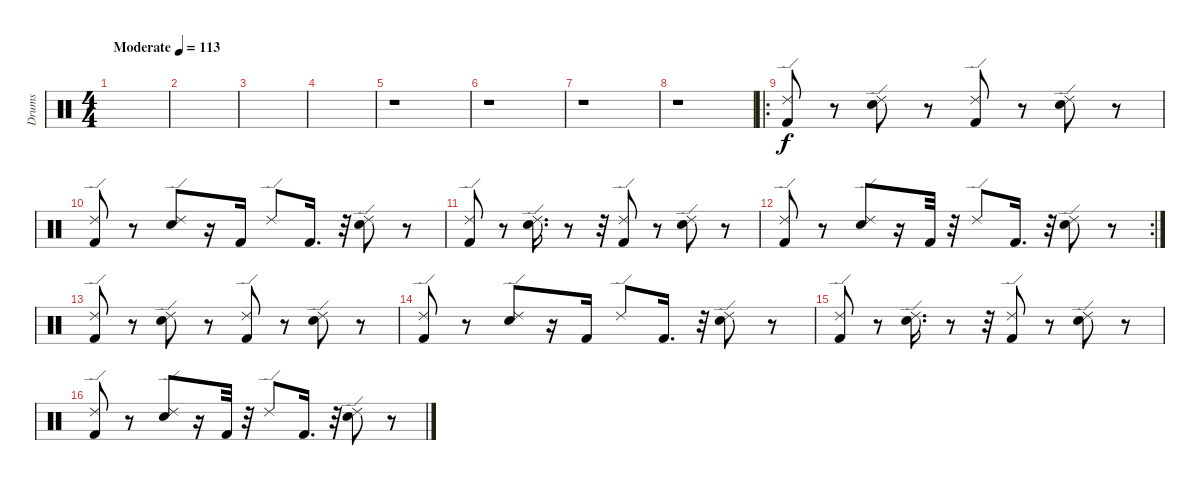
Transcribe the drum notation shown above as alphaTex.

\track ("Drums" "Drums") {instrument percussion}
\staff {score}
\articulation defaults
\ts (4 4)
\tempo (113 "Moderate")
\clef neutral
\ks c
|
|
|
|
r.1 |
r.1 |
r.1 |
r.1 |
\ro
("Kick (hit) 2" "Ride (edge) 2").8 r.8 ("Ride (edge) 2" "Snare (hit) 2").8 r.8 ("Kick (hit) 2" "Ride (edge) 2").8 r.8 ("Snare (hit) 2" "Ride (edge) 2").8 r.8 |
("Kick (hit) 2" "Ride (edge) 2").8 r.8 ("Snare (hit) 2" "Ride (edge) 2").8 r.16 "Kick (hit) 2".16 "Ride (edge) 2".8 "Kick (hit) 2".16{d} r.32 ("Snare (hit) 2" "Ride (edge) 2").8 r.8 |
("Kick (hit) 2" "Ride (edge) 2").8 r.8 ("Snare (hit) 2" "Ride (edge) 2").16{d} r.8 r.32 ("Kick (hit) 2" "Ride (edge) 2").8 r.8 ("Ride (edge) 2" "Snare (hit) 2").8 r.8 |
\rc 2
("Kick (hit) 2" "Ride (edge) 2").8 r.8 ("Snare (hit) 2" "Ride (edge) 2").8 r.16 "Kick (hit) 2".32 r.32 "Ride (edge) 2".8 "Kick (hit) 2".16{d} r.32 ("Snare (hit) 2" "Ride (edge) 2").8 r.8 |
("Kick (hit) 2" "Ride (edge) 2").8 r.8 ("Ride (edge) 2" "Snare (hit) 2").8 r.8 ("Kick (hit) 2" "Ride (edge) 2").8 r.8 ("Snare (hit) 2" "Ride (edge) 2").8 r.8 |
("Kick (hit) 2" "Ride (edge) 2").8 r.8 ("Snare (hit) 2" "Ride (edge) 2").8 r.16 "Kick (hit) 2".16 "Ride (edge) 2".8 "Kick (hit) 2".16{d} r.32 ("Snare (hit) 2" "Ride (edge) 2").8 r.8 |
("Kick (hit) 2" "Ride (edge) 2").8 r.8 ("Snare (hit) 2" "Ride (edge) 2").16{d} r.8 r.32 ("Kick (hit) 2" "Ride (edge) 2").8 r.8 ("Ride (edge) 2" "Snare (hit) 2").8 r.8 |
("Kick (hit) 2" "Ride (edge) 2").8 r.8 ("Snare (hit) 2" "Ride (edge) 2").8 r.16 "Kick (hit) 2".32 r.32 "Ride (edge) 2".8 "Kick (hit) 2".16{d} r.32 ("Snare (hit) 2" "Ride (edge) 2").8 r.8
